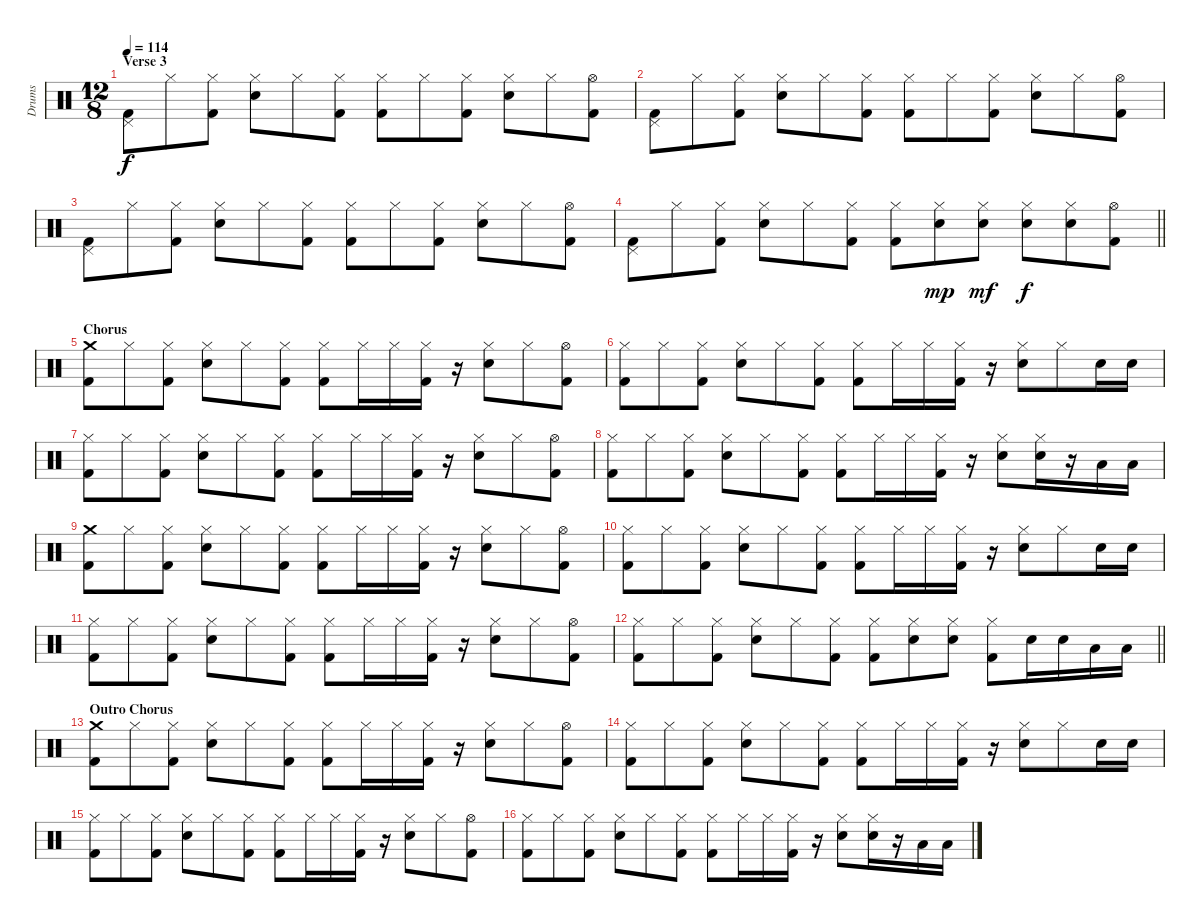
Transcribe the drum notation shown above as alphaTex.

\track ("Drums" "Drums") {instrument percussion}
\staff {score}
\articulation defaults
\ts (12 8)
\section ("" "Verse 3")
\tempo 114
\clef neutral
\ks c
("Pedal Hi-Hat (hit)" "Kick (hit) 2").8{dy f} "Hi-Hat (closed)".8 ("Hi-Hat (closed)" "Kick (hit) 2").8 ("Hi-Hat (closed)" "Snare (hit) 2").8 "Hi-Hat (closed)".8 ("Hi-Hat (closed)" "Kick (hit) 2").8 ("Hi-Hat (closed)" "Kick (hit) 2").8 "Hi-Hat (closed)".8 ("Hi-Hat (closed)" "Kick (hit) 2").8 ("Hi-Hat (closed)" "Snare (hit) 2").8 "Hi-Hat (closed)".8 ("Hi-Hat (open)" "Kick (hit) 2").8 |
("Pedal Hi-Hat (hit)" "Kick (hit) 2").8 "Hi-Hat (closed)".8 ("Hi-Hat (closed)" "Kick (hit) 2").8 ("Hi-Hat (closed)" "Snare (hit) 2").8 "Hi-Hat (closed)".8 ("Hi-Hat (closed)" "Kick (hit) 2").8 ("Hi-Hat (closed)" "Kick (hit) 2").8 "Hi-Hat (closed)".8 ("Hi-Hat (closed)" "Kick (hit) 2").8 ("Hi-Hat (closed)" "Snare (hit) 2").8 "Hi-Hat (closed)".8 ("Hi-Hat (open)" "Kick (hit) 2").8 |
("Pedal Hi-Hat (hit)" "Kick (hit) 2").8 "Hi-Hat (closed)".8 ("Hi-Hat (closed)" "Kick (hit) 2").8 ("Hi-Hat (closed)" "Snare (hit) 2").8 "Hi-Hat (closed)".8 ("Hi-Hat (closed)" "Kick (hit) 2").8 ("Hi-Hat (closed)" "Kick (hit) 2").8 "Hi-Hat (closed)".8 ("Hi-Hat (closed)" "Kick (hit) 2").8 ("Hi-Hat (closed)" "Snare (hit) 2").8 "Hi-Hat (closed)".8 ("Hi-Hat (open)" "Kick (hit) 2").8 |
\barLineRight lightlight
("Pedal Hi-Hat (hit)" "Kick (hit) 2").8 "Hi-Hat (closed)".8 ("Hi-Hat (closed)" "Kick (hit) 2").8 ("Hi-Hat (closed)" "Snare (hit) 2").8 "Hi-Hat (closed)".8 ("Hi-Hat (closed)" "Kick (hit) 2").8 ("Hi-Hat (closed)" "Kick (hit) 2").8 ("Hi-Hat (closed)" "Snare (hit) 2").8{dy mp} ("Hi-Hat (closed)" "Snare (hit) 2").8{dy mf} ("Hi-Hat (closed)" "Snare (hit) 2").8{dy f} ("Hi-Hat (closed)" "Snare (hit) 2").8 ("Hi-Hat (open)" "Kick (hit) 2").8 |
\section ("" "Chorus")
("Crash medium (hit)" "Kick (hit) 2").8 "Hi-Hat (closed)".8 ("Hi-Hat (closed)" "Kick (hit) 2").8 ("Hi-Hat (closed)" "Snare (hit) 2").8 "Hi-Hat (closed)".8 ("Hi-Hat (closed)" "Kick (hit) 2").8 ("Hi-Hat (closed)" "Kick (hit) 2").8 "Hi-Hat (closed)".16 "Hi-Hat (closed)".16 ("Hi-Hat (closed)" "Kick (hit) 2").16 r.16 ("Hi-Hat (closed)" "Snare (hit) 2").8 "Hi-Hat (closed)".8 ("Hi-Hat (open)" "Kick (hit) 2").8 |
("Hi-Hat (closed)" "Kick (hit) 2").8 "Hi-Hat (closed)".8 ("Hi-Hat (closed)" "Kick (hit) 2").8 ("Hi-Hat (closed)" "Snare (hit) 2").8 "Hi-Hat (closed)".8 ("Hi-Hat (closed)" "Kick (hit) 2").8 ("Hi-Hat (closed)" "Kick (hit) 2").8 "Hi-Hat (closed)".16 "Hi-Hat (closed)".16 ("Hi-Hat (closed)" "Kick (hit) 2").16 r.16 ("Hi-Hat (closed)" "Snare (hit) 2").8 "Hi-Hat (closed)".8 "Snare (hit) 2".16 "Snare (hit) 2".16 |
("Hi-Hat (closed)" "Kick (hit) 2").8 "Hi-Hat (closed)".8 ("Hi-Hat (closed)" "Kick (hit) 2").8 ("Hi-Hat (closed)" "Snare (hit) 2").8 "Hi-Hat (closed)".8 ("Hi-Hat (closed)" "Kick (hit) 2").8 ("Hi-Hat (closed)" "Kick (hit) 2").8 "Hi-Hat (closed)".16 "Hi-Hat (closed)".16 ("Hi-Hat (closed)" "Kick (hit) 2").16 r.16 ("Hi-Hat (closed)" "Snare (hit) 2").8 "Hi-Hat (closed)".8 ("Hi-Hat (open)" "Kick (hit) 2").8 |
("Hi-Hat (closed)" "Kick (hit) 2").8 "Hi-Hat (closed)".8 ("Hi-Hat (closed)" "Kick (hit) 2").8 ("Hi-Hat (closed)" "Snare (hit) 2").8 "Hi-Hat (closed)".8 ("Hi-Hat (closed)" "Kick (hit) 2").8 ("Hi-Hat (closed)" "Kick (hit) 2").8 "Hi-Hat (closed)".16 "Hi-Hat (closed)".16 ("Hi-Hat (closed)" "Kick (hit) 2").16 r.16 ("Hi-Hat (closed)" "Snare (hit) 2").8 ("Hi-Hat (closed)" "Snare (hit) 2").16 r.16 "Low Tom (hit)".16 "Low Tom (hit)".16 |
("Crash medium (hit)" "Kick (hit) 2").8 "Hi-Hat (closed)".8 ("Hi-Hat (closed)" "Kick (hit) 2").8 ("Hi-Hat (closed)" "Snare (hit) 2").8 "Hi-Hat (closed)".8 ("Hi-Hat (closed)" "Kick (hit) 2").8 ("Hi-Hat (closed)" "Kick (hit) 2").8 "Hi-Hat (closed)".16 "Hi-Hat (closed)".16 ("Hi-Hat (closed)" "Kick (hit) 2").16 r.16 ("Hi-Hat (closed)" "Snare (hit) 2").8 "Hi-Hat (closed)".8 ("Hi-Hat (open)" "Kick (hit) 2").8 |
("Hi-Hat (closed)" "Kick (hit) 2").8 "Hi-Hat (closed)".8 ("Hi-Hat (closed)" "Kick (hit) 2").8 ("Hi-Hat (closed)" "Snare (hit) 2").8 "Hi-Hat (closed)".8 ("Hi-Hat (closed)" "Kick (hit) 2").8 ("Hi-Hat (closed)" "Kick (hit) 2").8 "Hi-Hat (closed)".16 "Hi-Hat (closed)".16 ("Hi-Hat (closed)" "Kick (hit) 2").16 r.16 ("Hi-Hat (closed)" "Snare (hit) 2").8 "Hi-Hat (closed)".8 "Snare (hit) 2".16 "Snare (hit) 2".16 |
("Hi-Hat (closed)" "Kick (hit) 2").8 "Hi-Hat (closed)".8 ("Hi-Hat (closed)" "Kick (hit) 2").8 ("Hi-Hat (closed)" "Snare (hit) 2").8 "Hi-Hat (closed)".8 ("Hi-Hat (closed)" "Kick (hit) 2").8 ("Hi-Hat (closed)" "Kick (hit) 2").8 "Hi-Hat (closed)".16 "Hi-Hat (closed)".16 ("Hi-Hat (closed)" "Kick (hit) 2").16 r.16 ("Hi-Hat (closed)" "Snare (hit) 2").8 "Hi-Hat (closed)".8 ("Hi-Hat (open)" "Kick (hit) 2").8 |
\barLineRight lightlight
("Hi-Hat (closed)" "Kick (hit) 2").8 "Hi-Hat (closed)".8 ("Hi-Hat (closed)" "Kick (hit) 2").8 ("Hi-Hat (closed)" "Snare (hit) 2").8 "Hi-Hat (closed)".8 ("Hi-Hat (closed)" "Kick (hit) 2").8 ("Hi-Hat (closed)" "Kick (hit) 2").8 ("Hi-Hat (closed)" "Snare (hit) 2").8 ("Hi-Hat (closed)" "Snare (hit) 2").8 ("Hi-Hat (closed)" "Kick (hit) 2").8 "Snare (hit) 2".16 "Snare (hit) 2".16 "Low Tom (hit)".16 "Low Tom (hit)".16 |
\section ("" "Outro Chorus")
("Crash medium (hit)" "Kick (hit) 2").8 "Hi-Hat (closed)".8 ("Hi-Hat (closed)" "Kick (hit) 2").8 ("Hi-Hat (closed)" "Snare (hit) 2").8 "Hi-Hat (closed)".8 ("Hi-Hat (closed)" "Kick (hit) 2").8 ("Hi-Hat (closed)" "Kick (hit) 2").8 "Hi-Hat (closed)".16 "Hi-Hat (closed)".16 ("Hi-Hat (closed)" "Kick (hit) 2").16 r.16 ("Hi-Hat (closed)" "Snare (hit) 2").8 "Hi-Hat (closed)".8 ("Hi-Hat (open)" "Kick (hit) 2").8 |
("Hi-Hat (closed)" "Kick (hit) 2").8 "Hi-Hat (closed)".8 ("Hi-Hat (closed)" "Kick (hit) 2").8 ("Hi-Hat (closed)" "Snare (hit) 2").8 "Hi-Hat (closed)".8 ("Hi-Hat (closed)" "Kick (hit) 2").8 ("Hi-Hat (closed)" "Kick (hit) 2").8 "Hi-Hat (closed)".16 "Hi-Hat (closed)".16 ("Hi-Hat (closed)" "Kick (hit) 2").16 r.16 ("Hi-Hat (closed)" "Snare (hit) 2").8 "Hi-Hat (closed)".8 "Snare (hit) 2".16 "Snare (hit) 2".16 |
("Hi-Hat (closed)" "Kick (hit) 2").8 "Hi-Hat (closed)".8 ("Hi-Hat (closed)" "Kick (hit) 2").8 ("Hi-Hat (closed)" "Snare (hit) 2").8 "Hi-Hat (closed)".8 ("Hi-Hat (closed)" "Kick (hit) 2").8 ("Hi-Hat (closed)" "Kick (hit) 2").8 "Hi-Hat (closed)".16 "Hi-Hat (closed)".16 ("Hi-Hat (closed)" "Kick (hit) 2").16 r.16 ("Hi-Hat (closed)" "Snare (hit) 2").8 "Hi-Hat (closed)".8 ("Hi-Hat (open)" "Kick (hit) 2").8 |
("Hi-Hat (closed)" "Kick (hit) 2").8 "Hi-Hat (closed)".8 ("Hi-Hat (closed)" "Kick (hit) 2").8 ("Hi-Hat (closed)" "Snare (hit) 2").8 "Hi-Hat (closed)".8 ("Hi-Hat (closed)" "Kick (hit) 2").8 ("Hi-Hat (closed)" "Kick (hit) 2").8 "Hi-Hat (closed)".16 "Hi-Hat (closed)".16 ("Hi-Hat (closed)" "Kick (hit) 2").16 r.16 ("Hi-Hat (closed)" "Snare (hit) 2").8 ("Hi-Hat (closed)" "Snare (hit) 2").16 r.16 "Low Tom (hit)".16 "Low Tom (hit)".16
